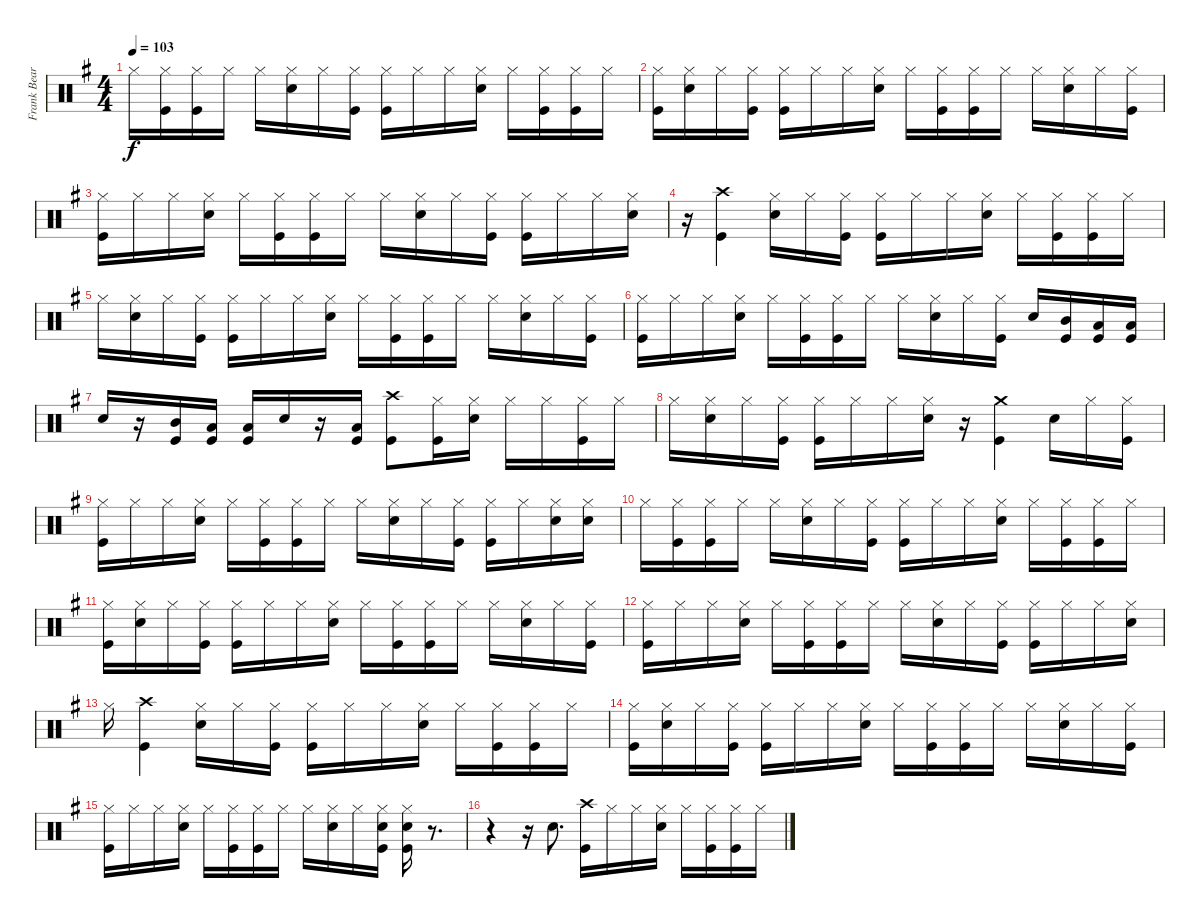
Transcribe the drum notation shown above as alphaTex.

\track ("Frank Beard Drums" "Frank Bear") {instrument percussion}
\staff {score}
\articulation defaults
\ts (4 4)
\tempo 103
\clef neutral
\ks g "Hi-Hat (closed)".16{dy f}
("Hi-Hat (closed)" "Kick (hit)").16 ("Hi-Hat (closed)" "Kick (hit)").16 "Hi-Hat (closed)".16 "Hi-Hat (closed)".16 ("Hi-Hat (closed)" "Snare (hit) 2").16 "Hi-Hat (closed)".16 ("Hi-Hat (closed)" "Kick (hit)").16 ("Hi-Hat (closed)" "Kick (hit)").16 "Hi-Hat (closed)".16 "Hi-Hat (closed)".16 ("Hi-Hat (closed)" "Snare (hit) 2").16 "Hi-Hat (closed)".16 ("Hi-Hat (closed)" "Kick (hit)").16 ("Hi-Hat (closed)" "Kick (hit)").16 "Hi-Hat (closed)".16 |
("Hi-Hat (closed)" "Kick (hit)").16 ("Hi-Hat (closed)" "Snare (hit) 2").16 "Hi-Hat (closed)".16 ("Hi-Hat (closed)" "Kick (hit)").16 ("Hi-Hat (closed)" "Kick (hit)").16 "Hi-Hat (closed)".16 "Hi-Hat (closed)".16 ("Hi-Hat (closed)" "Snare (hit) 2").16 "Hi-Hat (closed)".16 ("Hi-Hat (closed)" "Kick (hit)").16 ("Hi-Hat (closed)" "Kick (hit)").16 "Hi-Hat (closed)".16 "Hi-Hat (closed)".16 ("Hi-Hat (closed)" "Snare (hit) 2").16 "Hi-Hat (closed)".16 ("Hi-Hat (closed)" "Kick (hit)").16 |
("Hi-Hat (closed)" "Kick (hit)").16 "Hi-Hat (closed)".16 "Hi-Hat (closed)".16 ("Hi-Hat (closed)" "Snare (hit) 2").16 "Hi-Hat (closed)".16 ("Hi-Hat (closed)" "Kick (hit)").16 ("Hi-Hat (closed)" "Kick (hit)").16 "Hi-Hat (closed)".16 "Hi-Hat (closed)".16 ("Hi-Hat (closed)" "Snare (hit) 2").16 "Hi-Hat (closed)".16 ("Hi-Hat (closed)" "Kick (hit)").16 ("Hi-Hat (closed)" "Kick (hit)").16 "Hi-Hat (closed)".16 "Hi-Hat (closed)".16 ("Hi-Hat (closed)" "Snare (hit) 2").16 |
r.16 ("Crash high (hit)" "Kick (hit)").4 ("Hi-Hat (closed)" "Snare (hit) 2").16 "Hi-Hat (closed)".16 ("Hi-Hat (closed)" "Kick (hit)").16 ("Hi-Hat (closed)" "Kick (hit)").16 "Hi-Hat (closed)".16 "Hi-Hat (closed)".16 ("Hi-Hat (closed)" "Snare (hit) 2").16 "Hi-Hat (closed)".16 ("Hi-Hat (closed)" "Kick (hit)").16 ("Hi-Hat (closed)" "Kick (hit)").16 "Hi-Hat (closed)".16 |
"Hi-Hat (closed)".16 ("Hi-Hat (closed)" "Snare (hit) 2").16 "Hi-Hat (closed)".16 ("Hi-Hat (closed)" "Kick (hit)").16 ("Hi-Hat (closed)" "Kick (hit)").16 "Hi-Hat (closed)".16 "Hi-Hat (closed)".16 ("Hi-Hat (closed)" "Snare (hit) 2").16 "Hi-Hat (closed)".16 ("Hi-Hat (closed)" "Kick (hit)").16 ("Hi-Hat (closed)" "Kick (hit)").16 "Hi-Hat (closed)".16 "Hi-Hat (closed)".16 ("Hi-Hat (closed)" "Snare (hit) 2").16 "Hi-Hat (closed)".16 ("Hi-Hat (closed)" "Kick (hit)").16 |
("Hi-Hat (closed)" "Kick (hit)").16 "Hi-Hat (closed)".16 "Hi-Hat (closed)".16 ("Hi-Hat (closed)" "Snare (hit) 2").16 "Hi-Hat (closed)".16 ("Hi-Hat (closed)" "Kick (hit)").16 ("Hi-Hat (closed)" "Kick (hit)").16 "Hi-Hat (closed)".16 "Hi-Hat (closed)".16 ("Hi-Hat (closed)" "Snare (hit) 2").16 "Hi-Hat (closed)".16 ("Hi-Hat (closed)" "Kick (hit)").16 "Snare (hit) 2".16 ("Mid Tom (hit)" "Kick (hit)").16 ("Low Tom (hit)" "Kick (hit)").16 ("Low Tom (hit)" "Kick (hit)").16 |
"Snare (hit) 2".16 r.16 ("Mid Tom (hit)" "Kick (hit)").16 ("Low Tom (hit)" "Kick (hit)").16 ("Low Tom (hit)" "Kick (hit)").16 "Snare (hit) 2".16 r.16 ("Low Tom (hit)" "Kick (hit)").16 ("Crash high (hit)" "Kick (hit)").8 ("Hi-Hat (closed)" "Kick (hit)").16 ("Hi-Hat (closed)" "Snare (hit) 2").16 "Hi-Hat (closed)".16 "Hi-Hat (closed)".16 ("Hi-Hat (closed)" "Kick (hit)").16 "Hi-Hat (closed)".16 |
"Hi-Hat (closed)".16 ("Hi-Hat (closed)" "Snare (hit) 2").16 "Hi-Hat (closed)".16 ("Hi-Hat (closed)" "Kick (hit)").16 ("Hi-Hat (closed)" "Kick (hit)").16 "Hi-Hat (closed)".16 "Hi-Hat (closed)".16 ("Hi-Hat (closed)" "Snare (hit) 2").16 r.16 ("Crash medium (hit)" "Kick (hit)").4 "Snare (hit) 2".16 "Hi-Hat (closed)".16 ("Hi-Hat (closed)" "Kick (hit)").16 |
("Hi-Hat (closed)" "Kick (hit)").16 "Hi-Hat (closed)".16 "Hi-Hat (closed)".16 ("Hi-Hat (closed)" "Snare (hit) 2").16 "Hi-Hat (closed)".16 ("Hi-Hat (closed)" "Kick (hit)").16 ("Hi-Hat (closed)" "Kick (hit)").16 "Hi-Hat (closed)".16 "Hi-Hat (closed)".16 ("Hi-Hat (closed)" "Snare (hit) 2").16 "Hi-Hat (closed)".16 ("Hi-Hat (closed)" "Kick (hit)").16 ("Hi-Hat (closed)" "Kick (hit)").16 "Hi-Hat (closed)".16 ("Hi-Hat (closed)" "Snare (hit) 2").16 ("Hi-Hat (closed)" "Snare (hit) 2").16 |
"Hi-Hat (closed)".16 ("Hi-Hat (closed)" "Kick (hit)").16 ("Hi-Hat (closed)" "Kick (hit)").16 "Hi-Hat (closed)".16 "Hi-Hat (closed)".16 ("Hi-Hat (closed)" "Snare (hit) 2").16 "Hi-Hat (closed)".16 ("Hi-Hat (closed)" "Kick (hit)").16 ("Hi-Hat (closed)" "Kick (hit)").16 "Hi-Hat (closed)".16 "Hi-Hat (closed)".16 ("Hi-Hat (closed)" "Snare (hit) 2").16 "Hi-Hat (closed)".16 ("Hi-Hat (closed)" "Kick (hit)").16 ("Hi-Hat (closed)" "Kick (hit)").16 "Hi-Hat (closed)".16 |
("Hi-Hat (closed)" "Kick (hit)").16 ("Hi-Hat (closed)" "Snare (hit) 2").16 "Hi-Hat (closed)".16 ("Hi-Hat (closed)" "Kick (hit)").16 ("Hi-Hat (closed)" "Kick (hit)").16 "Hi-Hat (closed)".16 "Hi-Hat (closed)".16 ("Hi-Hat (closed)" "Snare (hit) 2").16 "Hi-Hat (closed)".16 ("Hi-Hat (closed)" "Kick (hit)").16 ("Hi-Hat (closed)" "Kick (hit)").16 "Hi-Hat (closed)".16 "Hi-Hat (closed)".16 ("Hi-Hat (closed)" "Snare (hit) 2").16 "Hi-Hat (closed)".16 ("Hi-Hat (closed)" "Kick (hit)").16 |
("Hi-Hat (closed)" "Kick (hit)").16 "Hi-Hat (closed)".16 "Hi-Hat (closed)".16 ("Hi-Hat (closed)" "Snare (hit) 2").16 "Hi-Hat (closed)".16 ("Hi-Hat (closed)" "Kick (hit)").16 ("Hi-Hat (closed)" "Kick (hit)").16 "Hi-Hat (closed)".16 "Hi-Hat (closed)".16 ("Hi-Hat (closed)" "Snare (hit) 2").16 "Hi-Hat (closed)".16 ("Hi-Hat (closed)" "Kick (hit)").16 ("Hi-Hat (closed)" "Kick (hit)").16 "Hi-Hat (closed)".16 "Hi-Hat (closed)".16 ("Hi-Hat (closed)" "Snare (hit) 2").16 |
"Hi-Hat (closed)".16 ("Crash high (hit)" "Kick (hit)").4 ("Hi-Hat (closed)" "Snare (hit) 2").16 "Hi-Hat (closed)".16 ("Hi-Hat (closed)" "Kick (hit)").16 ("Hi-Hat (closed)" "Kick (hit)").16 "Hi-Hat (closed)".16 "Hi-Hat (closed)".16 ("Hi-Hat (closed)" "Snare (hit) 2").16 "Hi-Hat (closed)".16 ("Hi-Hat (closed)" "Kick (hit)").16 ("Hi-Hat (closed)" "Kick (hit)").16 "Hi-Hat (closed)".16 |
("Hi-Hat (closed)" "Kick (hit)").16 ("Hi-Hat (closed)" "Snare (hit) 2").16 "Hi-Hat (closed)".16 ("Hi-Hat (closed)" "Kick (hit)").16 ("Hi-Hat (closed)" "Kick (hit)").16 "Hi-Hat (closed)".16 "Hi-Hat (closed)".16 ("Hi-Hat (closed)" "Snare (hit) 2").16 "Hi-Hat (closed)".16 ("Hi-Hat (closed)" "Kick (hit)").16 ("Hi-Hat (closed)" "Kick (hit)").16 "Hi-Hat (closed)".16 "Hi-Hat (closed)".16 ("Hi-Hat (closed)" "Snare (hit) 2").16 "Hi-Hat (closed)".16 ("Hi-Hat (closed)" "Kick (hit)").16 |
("Hi-Hat (closed)" "Kick (hit)").16 "Hi-Hat (closed)".16 "Hi-Hat (closed)".16 ("Hi-Hat (closed)" "Snare (hit) 2").16 "Hi-Hat (closed)".16 ("Hi-Hat (closed)" "Kick (hit)").16 ("Hi-Hat (closed)" "Kick (hit)").16 "Hi-Hat (closed)".16 "Hi-Hat (closed)".16 ("Hi-Hat (closed)" "Snare (hit) 2").16 "Hi-Hat (closed)".16 ("Hi-Hat (closed)" "Snare (hit) 2" "Kick (hit)").16 ("Hi-Hat (closed)" "Snare (hit) 2" "Kick (hit)").16 r.8{d} |
r.4 r.16 "Snare (hit) 2".8{d} ("Crash high (hit)" "Kick (hit)").16 "Hi-Hat (closed)".16 "Hi-Hat (closed)".16 ("Hi-Hat (closed)" "Snare (hit) 2").16 "Hi-Hat (closed)".16 ("Hi-Hat (closed)" "Kick (hit)").16 ("Hi-Hat (closed)" "Kick (hit)").16 "Hi-Hat (closed)".16
